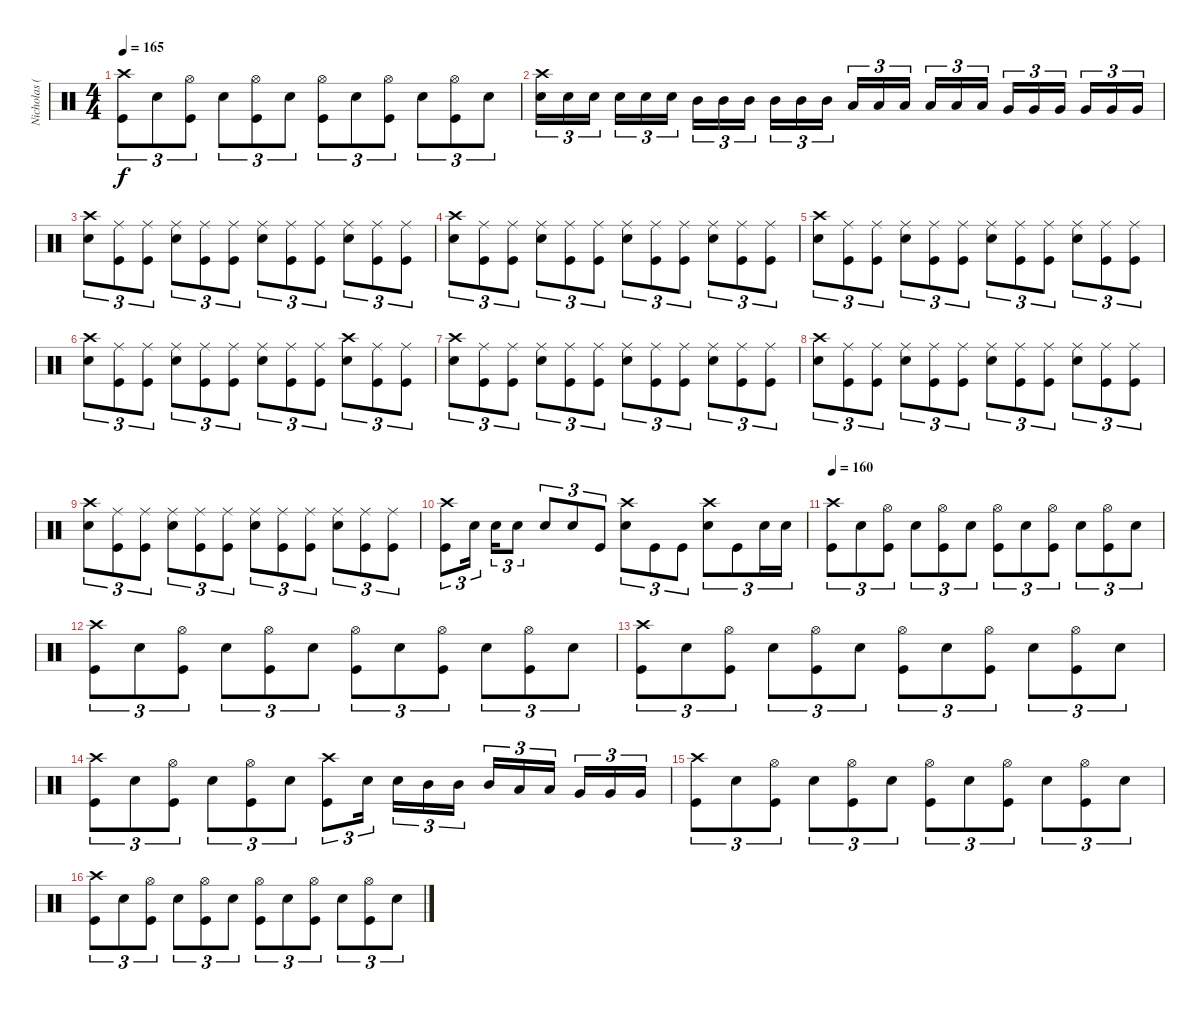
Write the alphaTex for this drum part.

\track ("Nicholas (Drums)" "Nicholas (") {instrument percussion}
\staff {score}
\articulation defaults
\ts (4 4)
\tempo 165
\clef neutral
\ks c
("Crash high (hit)" "Kick (hit)").8{tu (3 2) dy f} "Electric Snare (hit)".8{tu (3 2)} ("Hi-Hat (open)" "Kick (hit)").8{tu (3 2)} "Electric Snare (hit)".8{tu (3 2)} ("Hi-Hat (open)" "Kick (hit)").8{tu (3 2)} "Electric Snare (hit)".8{tu (3 2)} ("Hi-Hat (open)" "Kick (hit)").8{tu (3 2)} "Electric Snare (hit)".8{tu (3 2)} ("Hi-Hat (open)" "Kick (hit)").8{tu (3 2)} "Electric Snare (hit)".8{tu (3 2)} ("Hi-Hat (open)" "Kick (hit)").8{tu (3 2)} "Electric Snare (hit)".8{tu (3 2)} |
("Crash high (hit)" "Electric Snare (hit)").16{tu (3 2)} "Electric Snare (hit)".16{tu (3 2)} "Electric Snare (hit)".16{tu (3 2)} "Electric Snare (hit)".16{tu (3 2)} "Electric Snare (hit)".16{tu (3 2)} "Electric Snare (hit)".16{tu (3 2)} "Mid Tom (hit)".16{tu (3 2)} "Mid Tom (hit)".16{tu (3 2)} "Mid Tom (hit)".16{tu (3 2)} "Mid Tom (hit)".16{tu (3 2)} "Mid Tom (hit)".16{tu (3 2)} "Mid Tom (hit)".16{tu (3 2)} "Low Tom (hit)".16{tu (3 2)} "Low Tom (hit)".16{tu (3 2)} "Low Tom (hit)".16{tu (3 2)} "Low Tom (hit)".16{tu (3 2)} "Low Tom (hit)".16{tu (3 2)} "Low Tom (hit)".16{tu (3 2)} "Very Low Tom (hit)".16{tu (3 2)} "Very Low Tom (hit)".16{tu (3 2)} "Very Low Tom (hit)".16{tu (3 2)} "Very Low Tom (hit)".16{tu (3 2)} "Very Low Tom (hit)".16{tu (3 2)} "Very Low Tom (hit)".16{tu (3 2)} |
("Crash high (hit)" "Electric Snare (hit)").8{tu (3 2)} ("Ride (middle)" "Kick (hit)").8{tu (3 2)} ("Ride (middle)" "Kick (hit)").8{tu (3 2)} ("Ride (middle)" "Electric Snare (hit)").8{tu (3 2)} ("Ride (middle)" "Kick (hit)").8{tu (3 2)} ("Ride (middle)" "Kick (hit)").8{tu (3 2)} ("Ride (middle)" "Electric Snare (hit)").8{tu (3 2)} ("Ride (middle)" "Kick (hit)").8{tu (3 2)} ("Ride (middle)" "Kick (hit)").8{tu (3 2)} ("Ride (middle)" "Electric Snare (hit)").8{tu (3 2)} ("Ride (middle)" "Kick (hit)").8{tu (3 2)} ("Ride (middle)" "Kick (hit)").8{tu (3 2)} |
("Crash high (hit)" "Electric Snare (hit)").8{tu (3 2)} ("Ride (middle)" "Kick (hit)").8{tu (3 2)} ("Ride (middle)" "Kick (hit)").8{tu (3 2)} ("Ride (middle)" "Electric Snare (hit)").8{tu (3 2)} ("Ride (middle)" "Kick (hit)").8{tu (3 2)} ("Ride (middle)" "Kick (hit)").8{tu (3 2)} ("Ride (middle)" "Electric Snare (hit)").8{tu (3 2)} ("Ride (middle)" "Kick (hit)").8{tu (3 2)} ("Ride (middle)" "Kick (hit)").8{tu (3 2)} ("Ride (middle)" "Electric Snare (hit)").8{tu (3 2)} ("Ride (middle)" "Kick (hit)").8{tu (3 2)} ("Ride (middle)" "Kick (hit)").8{tu (3 2)} |
("Crash high (hit)" "Electric Snare (hit)").8{tu (3 2)} ("Ride (middle)" "Kick (hit)").8{tu (3 2)} ("Ride (middle)" "Kick (hit)").8{tu (3 2)} ("Ride (middle)" "Electric Snare (hit)").8{tu (3 2)} ("Ride (middle)" "Kick (hit)").8{tu (3 2)} ("Ride (middle)" "Kick (hit)").8{tu (3 2)} ("Ride (middle)" "Electric Snare (hit)").8{tu (3 2)} ("Ride (middle)" "Kick (hit)").8{tu (3 2)} ("Ride (middle)" "Kick (hit)").8{tu (3 2)} ("Ride (middle)" "Electric Snare (hit)").8{tu (3 2)} ("Ride (middle)" "Kick (hit)").8{tu (3 2)} ("Ride (middle)" "Kick (hit)").8{tu (3 2)} |
("Crash high (hit)" "Electric Snare (hit)").8{tu (3 2)} ("Ride (middle)" "Kick (hit)").8{tu (3 2)} ("Ride (middle)" "Kick (hit)").8{tu (3 2)} ("Ride (middle)" "Electric Snare (hit)").8{tu (3 2)} ("Ride (middle)" "Kick (hit)").8{tu (3 2)} ("Ride (middle)" "Kick (hit)").8{tu (3 2)} ("Ride (middle)" "Electric Snare (hit)").8{tu (3 2)} ("Ride (middle)" "Kick (hit)").8{tu (3 2)} ("Ride (middle)" "Kick (hit)").8{tu (3 2)} ("Crash high (hit)" "Electric Snare (hit)").8{tu (3 2)} ("Ride (middle)" "Kick (hit)").8{tu (3 2)} ("Ride (middle)" "Kick (hit)").8{tu (3 2)} |
("Crash high (hit)" "Electric Snare (hit)").8{tu (3 2)} ("Ride (middle)" "Kick (hit)").8{tu (3 2)} ("Ride (middle)" "Kick (hit)").8{tu (3 2)} ("Ride (middle)" "Electric Snare (hit)").8{tu (3 2)} ("Ride (middle)" "Kick (hit)").8{tu (3 2)} ("Ride (middle)" "Kick (hit)").8{tu (3 2)} ("Ride (middle)" "Electric Snare (hit)").8{tu (3 2)} ("Ride (middle)" "Kick (hit)").8{tu (3 2)} ("Ride (middle)" "Kick (hit)").8{tu (3 2)} ("Ride (middle)" "Electric Snare (hit)").8{tu (3 2)} ("Ride (middle)" "Kick (hit)").8{tu (3 2)} ("Ride (middle)" "Kick (hit)").8{tu (3 2)} |
("Crash high (hit)" "Electric Snare (hit)").8{tu (3 2)} ("Ride (middle)" "Kick (hit)").8{tu (3 2)} ("Ride (middle)" "Kick (hit)").8{tu (3 2)} ("Ride (middle)" "Electric Snare (hit)").8{tu (3 2)} ("Ride (middle)" "Kick (hit)").8{tu (3 2)} ("Ride (middle)" "Kick (hit)").8{tu (3 2)} ("Ride (middle)" "Electric Snare (hit)").8{tu (3 2)} ("Ride (middle)" "Kick (hit)").8{tu (3 2)} ("Ride (middle)" "Kick (hit)").8{tu (3 2)} ("Ride (middle)" "Electric Snare (hit)").8{tu (3 2)} ("Ride (middle)" "Kick (hit)").8{tu (3 2)} ("Ride (middle)" "Kick (hit)").8{tu (3 2)} |
("Crash high (hit)" "Electric Snare (hit)").8{tu (3 2)} ("Ride (middle)" "Kick (hit)").8{tu (3 2)} ("Ride (middle)" "Kick (hit)").8{tu (3 2)} ("Ride (middle)" "Electric Snare (hit)").8{tu (3 2)} ("Ride (middle)" "Kick (hit)").8{tu (3 2)} ("Ride (middle)" "Kick (hit)").8{tu (3 2)} ("Ride (middle)" "Electric Snare (hit)").8{tu (3 2)} ("Ride (middle)" "Kick (hit)").8{tu (3 2)} ("Ride (middle)" "Kick (hit)").8{tu (3 2)} ("Ride (middle)" "Electric Snare (hit)").8{tu (3 2)} ("Ride (middle)" "Kick (hit)").8{tu (3 2)} ("Ride (middle)" "Kick (hit)").8{tu (3 2)} |
("Crash high (hit)" "Kick (hit)").8{tu (3 2)} "Electric Snare (hit)".16{tu (3 2)} "Electric Snare (hit)".16{tu (3 2)} "Electric Snare (hit)".8{tu (3 2)} "Electric Snare (hit)".8{tu (3 2)} "Electric Snare (hit)".8{tu (3 2)} "Kick (hit)".8{tu (3 2)} ("Crash high (hit)" "Electric Snare (hit)").8{tu (3 2)} "Kick (hit)".8{tu (3 2)} "Kick (hit)".8{tu (3 2)} ("Crash high (hit)" "Electric Snare (hit)").8{tu (3 2)} "Kick (hit)".8{tu (3 2)} "Electric Snare (hit)".16{tu (3 2)} "Electric Snare (hit)".16{tu (3 2)} |
\tempo 160
("Crash high (hit)" "Kick (hit)").8{tu (3 2)} "Electric Snare (hit)".8{tu (3 2)} ("Hi-Hat (open)" "Kick (hit)").8{tu (3 2)} "Electric Snare (hit)".8{tu (3 2)} ("Hi-Hat (open)" "Kick (hit)").8{tu (3 2)} "Electric Snare (hit)".8{tu (3 2)} ("Hi-Hat (open)" "Kick (hit)").8{tu (3 2)} "Electric Snare (hit)".8{tu (3 2)} ("Hi-Hat (open)" "Kick (hit)").8{tu (3 2)} "Electric Snare (hit)".8{tu (3 2)} ("Hi-Hat (open)" "Kick (hit)").8{tu (3 2)} "Electric Snare (hit)".8{tu (3 2)} |
("Crash high (hit)" "Kick (hit)").8{tu (3 2)} "Electric Snare (hit)".8{tu (3 2)} ("Hi-Hat (open)" "Kick (hit)").8{tu (3 2)} "Electric Snare (hit)".8{tu (3 2)} ("Hi-Hat (open)" "Kick (hit)").8{tu (3 2)} "Electric Snare (hit)".8{tu (3 2)} ("Hi-Hat (open)" "Kick (hit)").8{tu (3 2)} "Electric Snare (hit)".8{tu (3 2)} ("Hi-Hat (open)" "Kick (hit)").8{tu (3 2)} "Electric Snare (hit)".8{tu (3 2)} ("Hi-Hat (open)" "Kick (hit)").8{tu (3 2)} "Electric Snare (hit)".8{tu (3 2)} |
("Crash high (hit)" "Kick (hit)").8{tu (3 2)} "Electric Snare (hit)".8{tu (3 2)} ("Hi-Hat (open)" "Kick (hit)").8{tu (3 2)} "Electric Snare (hit)".8{tu (3 2)} ("Hi-Hat (open)" "Kick (hit)").8{tu (3 2)} "Electric Snare (hit)".8{tu (3 2)} ("Hi-Hat (open)" "Kick (hit)").8{tu (3 2)} "Electric Snare (hit)".8{tu (3 2)} ("Hi-Hat (open)" "Kick (hit)").8{tu (3 2)} "Electric Snare (hit)".8{tu (3 2)} ("Hi-Hat (open)" "Kick (hit)").8{tu (3 2)} "Electric Snare (hit)".8{tu (3 2)} |
("Crash high (hit)" "Kick (hit)").8{tu (3 2)} "Electric Snare (hit)".8{tu (3 2)} ("Hi-Hat (open)" "Kick (hit)").8{tu (3 2)} "Electric Snare (hit)".8{tu (3 2)} ("Hi-Hat (open)" "Kick (hit)").8{tu (3 2)} "Electric Snare (hit)".8{tu (3 2)} ("Crash high (hit)" "Kick (hit)").8{tu (3 2)} "Electric Snare (hit)".16{tu (3 2)} "Electric Snare (hit)".16{tu (3 2)} "Mid Tom (hit)".16{tu (3 2)} "Mid Tom (hit)".16{tu (3 2)} "Mid Tom (hit)".16{tu (3 2)} "Low Tom (hit)".16{tu (3 2)} "Low Tom (hit)".16{tu (3 2)} "Very Low Tom (hit)".16{tu (3 2)} "Very Low Tom (hit)".16{tu (3 2)} "Very Low Tom (hit)".16{tu (3 2)} |
("Crash high (hit)" "Kick (hit)").8{tu (3 2)} "Electric Snare (hit)".8{tu (3 2)} ("Hi-Hat (open)" "Kick (hit)").8{tu (3 2)} "Electric Snare (hit)".8{tu (3 2)} ("Hi-Hat (open)" "Kick (hit)").8{tu (3 2)} "Electric Snare (hit)".8{tu (3 2)} ("Hi-Hat (open)" "Kick (hit)").8{tu (3 2)} "Electric Snare (hit)".8{tu (3 2)} ("Hi-Hat (open)" "Kick (hit)").8{tu (3 2)} "Electric Snare (hit)".8{tu (3 2)} ("Hi-Hat (open)" "Kick (hit)").8{tu (3 2)} "Electric Snare (hit)".8{tu (3 2)} |
("Crash high (hit)" "Kick (hit)").8{tu (3 2)} "Electric Snare (hit)".8{tu (3 2)} ("Hi-Hat (open)" "Kick (hit)").8{tu (3 2)} "Electric Snare (hit)".8{tu (3 2)} ("Hi-Hat (open)" "Kick (hit)").8{tu (3 2)} "Electric Snare (hit)".8{tu (3 2)} ("Hi-Hat (open)" "Kick (hit)").8{tu (3 2)} "Electric Snare (hit)".8{tu (3 2)} ("Hi-Hat (open)" "Kick (hit)").8{tu (3 2)} "Electric Snare (hit)".8{tu (3 2)} ("Hi-Hat (open)" "Kick (hit)").8{tu (3 2)} "Electric Snare (hit)".8{tu (3 2)}
